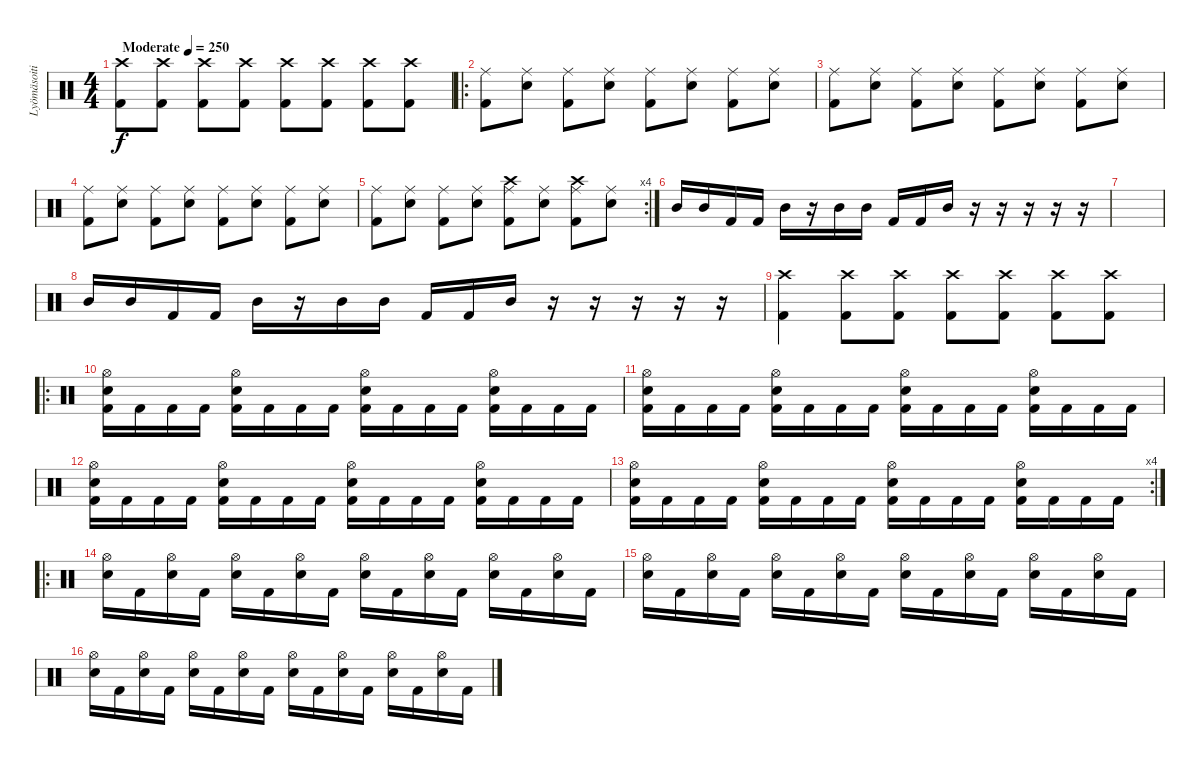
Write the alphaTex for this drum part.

\track ("Lyömäsoitin" "Lyömäsoiti") {instrument percussion}
\staff {score}
\articulation defaults
\ts (4 4)
\tempo (250 "Moderate")
\clef neutral
\ks c
("Crash high (hit)" "Kick (hit) 2").8{dy f} ("Crash high (hit)" "Kick (hit) 2").8 ("Crash high (hit)" "Kick (hit) 2").8 ("Crash high (hit)" "Kick (hit) 2").8 ("Crash high (hit)" "Kick (hit) 2").8 ("Crash high (hit)" "Kick (hit) 2").8 ("Crash high (hit)" "Kick (hit) 2").8 ("Crash high (hit)" "Kick (hit) 2").8 |
\ro
("Ride (middle)" "Kick (hit) 2").8 ("Ride (middle)" "Electric Snare (hit)").8 ("Ride (middle)" "Kick (hit) 2").8 ("Ride (middle)" "Electric Snare (hit)").8 ("Ride (middle)" "Kick (hit) 2").8 ("Ride (middle)" "Electric Snare (hit)").8 ("Ride (middle)" "Kick (hit) 2").8 ("Ride (middle)" "Electric Snare (hit)").8 |
("Ride (middle)" "Kick (hit) 2").8 ("Ride (middle)" "Electric Snare (hit)").8 ("Ride (middle)" "Kick (hit) 2").8 ("Ride (middle)" "Electric Snare (hit)").8 ("Ride (middle)" "Kick (hit) 2").8 ("Ride (middle)" "Electric Snare (hit)").8 ("Ride (middle)" "Kick (hit) 2").8 ("Ride (middle)" "Electric Snare (hit)").8 |
("Ride (middle)" "Kick (hit) 2").8 ("Ride (middle)" "Electric Snare (hit)").8 ("Ride (middle)" "Kick (hit) 2").8 ("Ride (middle)" "Electric Snare (hit)").8 ("Ride (middle)" "Kick (hit) 2").8 ("Ride (middle)" "Electric Snare (hit)").8 ("Ride (middle)" "Kick (hit) 2").8 ("Ride (middle)" "Electric Snare (hit)").8 |
\rc 4
("Ride (middle)" "Kick (hit) 2").8 ("Ride (middle)" "Electric Snare (hit)").8 ("Ride (middle)" "Kick (hit) 2").8 ("Ride (middle)" "Electric Snare (hit)").8 ("Crash high (hit)" "Ride (middle)" "Kick (hit) 2").8 ("Ride (middle)" "Electric Snare (hit)").8 ("Crash high (hit)" "Ride (middle)" "Kick (hit) 2").8 ("Ride (middle)" "Electric Snare (hit)").8 |
"Mid Tom (hit)".16 "Mid Tom (hit)".16 "Kick (hit) 2".16 "Kick (hit) 2".16 "Mid Tom (hit)".16 r.16 "Mid Tom (hit)".16 "Mid Tom (hit)".16 "Kick (hit) 2".16 "Kick (hit) 2".16 "Mid Tom (hit)".16 r.16 r.16 r.16 r.16 r.16 |
|
"Mid Tom (hit)".16 "Mid Tom (hit)".16 "Kick (hit) 2".16 "Kick (hit) 2".16 "Mid Tom (hit)".16 r.16 "Mid Tom (hit)".16 "Mid Tom (hit)".16 "Kick (hit) 2".16 "Kick (hit) 2".16 "Mid Tom (hit)".16 r.16 r.16 r.16 r.16 r.16 |
("Crash high (hit)" "Kick (hit) 2").4 ("Crash high (hit)" "Kick (hit) 2").8 ("Crash high (hit)" "Kick (hit) 2").8 ("Crash high (hit)" "Kick (hit) 2").8 ("Crash high (hit)" "Kick (hit) 2").8 ("Crash high (hit)" "Kick (hit) 2").8 ("Crash high (hit)" "Kick (hit) 2").8 |
\ro
("Hi-Hat (open)" "Electric Snare (hit)" "Kick (hit) 2").16 "Kick (hit) 2".16 "Kick (hit) 2".16 "Kick (hit) 2".16 ("Hi-Hat (open)" "Electric Snare (hit)" "Kick (hit) 2").16 "Kick (hit) 2".16 "Kick (hit) 2".16 "Kick (hit) 2".16 ("Hi-Hat (open)" "Electric Snare (hit)" "Kick (hit) 2").16 "Kick (hit) 2".16 "Kick (hit) 2".16 "Kick (hit) 2".16 ("Hi-Hat (open)" "Electric Snare (hit)" "Kick (hit) 2").16 "Kick (hit) 2".16 "Kick (hit) 2".16 "Kick (hit) 2".16 |
("Hi-Hat (open)" "Electric Snare (hit)" "Kick (hit) 2").16 "Kick (hit) 2".16 "Kick (hit) 2".16 "Kick (hit) 2".16 ("Hi-Hat (open)" "Electric Snare (hit)" "Kick (hit) 2").16 "Kick (hit) 2".16 "Kick (hit) 2".16 "Kick (hit) 2".16 ("Hi-Hat (open)" "Electric Snare (hit)" "Kick (hit) 2").16 "Kick (hit) 2".16 "Kick (hit) 2".16 "Kick (hit) 2".16 ("Hi-Hat (open)" "Electric Snare (hit)" "Kick (hit) 2").16 "Kick (hit) 2".16 "Kick (hit) 2".16 "Kick (hit) 2".16 |
("Hi-Hat (open)" "Electric Snare (hit)" "Kick (hit) 2").16 "Kick (hit) 2".16 "Kick (hit) 2".16 "Kick (hit) 2".16 ("Hi-Hat (open)" "Electric Snare (hit)" "Kick (hit) 2").16 "Kick (hit) 2".16 "Kick (hit) 2".16 "Kick (hit) 2".16 ("Hi-Hat (open)" "Electric Snare (hit)" "Kick (hit) 2").16 "Kick (hit) 2".16 "Kick (hit) 2".16 "Kick (hit) 2".16 ("Hi-Hat (open)" "Electric Snare (hit)" "Kick (hit) 2").16 "Kick (hit) 2".16 "Kick (hit) 2".16 "Kick (hit) 2".16 |
\rc 4
("Hi-Hat (open)" "Electric Snare (hit)" "Kick (hit) 2").16 "Kick (hit) 2".16 "Kick (hit) 2".16 "Kick (hit) 2".16 ("Hi-Hat (open)" "Electric Snare (hit)" "Kick (hit) 2").16 "Kick (hit) 2".16 "Kick (hit) 2".16 "Kick (hit) 2".16 ("Hi-Hat (open)" "Electric Snare (hit)" "Kick (hit) 2").16 "Kick (hit) 2".16 "Kick (hit) 2".16 "Kick (hit) 2".16 ("Hi-Hat (open)" "Electric Snare (hit)" "Kick (hit) 2").16 "Kick (hit) 2".16 "Kick (hit) 2".16 "Kick (hit) 2".16 |
\ro
("Hi-Hat (open)" "Electric Snare (hit)").16 "Kick (hit) 2".16 ("Hi-Hat (open)" "Electric Snare (hit)").16 "Kick (hit) 2".16 ("Hi-Hat (open)" "Electric Snare (hit)").16 "Kick (hit) 2".16 ("Hi-Hat (open)" "Electric Snare (hit)").16 "Kick (hit) 2".16 ("Hi-Hat (open)" "Electric Snare (hit)").16 "Kick (hit) 2".16 ("Hi-Hat (open)" "Electric Snare (hit)").16 "Kick (hit) 2".16 ("Hi-Hat (open)" "Electric Snare (hit)").16 "Kick (hit) 2".16 ("Hi-Hat (open)" "Electric Snare (hit)").16 "Kick (hit) 2".16 |
("Hi-Hat (open)" "Electric Snare (hit)").16 "Kick (hit) 2".16 ("Hi-Hat (open)" "Electric Snare (hit)").16 "Kick (hit) 2".16 ("Hi-Hat (open)" "Electric Snare (hit)").16 "Kick (hit) 2".16 ("Hi-Hat (open)" "Electric Snare (hit)").16 "Kick (hit) 2".16 ("Hi-Hat (open)" "Electric Snare (hit)").16 "Kick (hit) 2".16 ("Hi-Hat (open)" "Electric Snare (hit)").16 "Kick (hit) 2".16 ("Hi-Hat (open)" "Electric Snare (hit)").16 "Kick (hit) 2".16 ("Hi-Hat (open)" "Electric Snare (hit)").16 "Kick (hit) 2".16 |
("Hi-Hat (open)" "Electric Snare (hit)").16 "Kick (hit) 2".16 ("Hi-Hat (open)" "Electric Snare (hit)").16 "Kick (hit) 2".16 ("Hi-Hat (open)" "Electric Snare (hit)").16 "Kick (hit) 2".16 ("Hi-Hat (open)" "Electric Snare (hit)").16 "Kick (hit) 2".16 ("Hi-Hat (open)" "Electric Snare (hit)").16 "Kick (hit) 2".16 ("Hi-Hat (open)" "Electric Snare (hit)").16 "Kick (hit) 2".16 ("Hi-Hat (open)" "Electric Snare (hit)").16 "Kick (hit) 2".16 ("Hi-Hat (open)" "Electric Snare (hit)").16 "Kick (hit) 2".16
